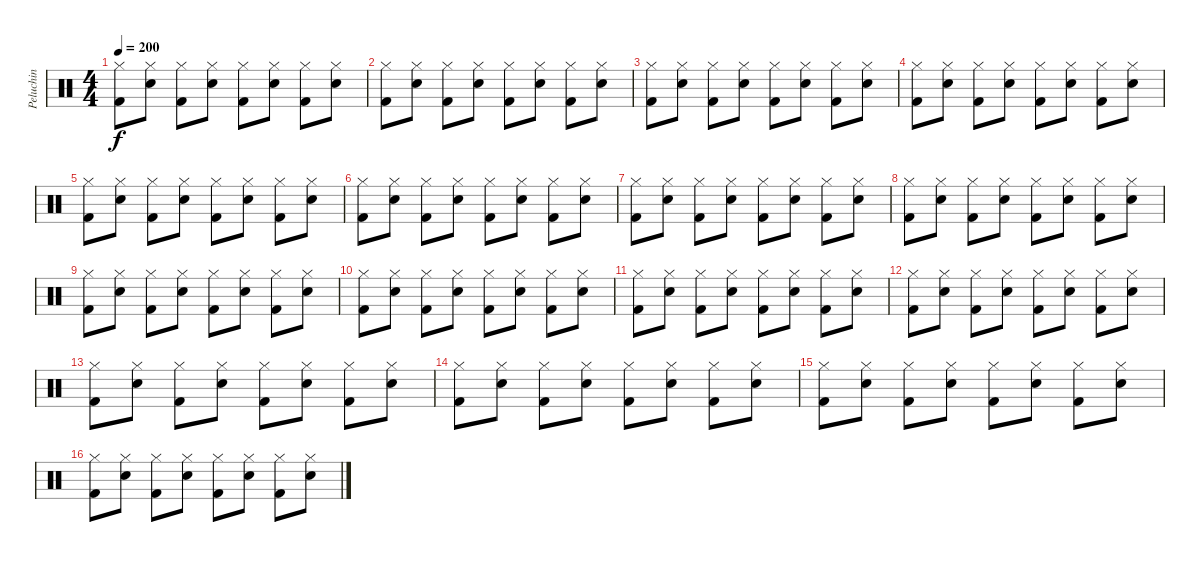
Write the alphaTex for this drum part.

\track ("Peluchin" "Peluchin") {instrument percussion}
\staff {score}
\articulation defaults
\ts (4 4)
\tempo 200
\clef neutral
\ks c
("Kick (hit) 2" "Hi-Hat (closed)").8{dy f} ("Electric Snare (hit)" "Hi-Hat (closed)").8 ("Kick (hit) 2" "Hi-Hat (closed)").8 ("Electric Snare (hit)" "Hi-Hat (closed)").8 ("Kick (hit) 2" "Hi-Hat (closed)").8 ("Electric Snare (hit)" "Hi-Hat (closed)").8 ("Kick (hit) 2" "Hi-Hat (closed)").8 ("Electric Snare (hit)" "Hi-Hat (closed)").8 |
("Kick (hit) 2" "Hi-Hat (closed)").8 ("Electric Snare (hit)" "Hi-Hat (closed)").8 ("Kick (hit) 2" "Hi-Hat (closed)").8 ("Electric Snare (hit)" "Hi-Hat (closed)").8 ("Kick (hit) 2" "Hi-Hat (closed)").8 ("Electric Snare (hit)" "Hi-Hat (closed)").8 ("Kick (hit) 2" "Hi-Hat (closed)").8 ("Electric Snare (hit)" "Hi-Hat (closed)").8 |
("Kick (hit) 2" "Hi-Hat (closed)").8 ("Electric Snare (hit)" "Hi-Hat (closed)").8 ("Kick (hit) 2" "Hi-Hat (closed)").8 ("Electric Snare (hit)" "Hi-Hat (closed)").8 ("Kick (hit) 2" "Hi-Hat (closed)").8 ("Electric Snare (hit)" "Hi-Hat (closed)").8 ("Kick (hit) 2" "Hi-Hat (closed)").8 ("Electric Snare (hit)" "Hi-Hat (closed)").8 |
("Kick (hit) 2" "Hi-Hat (closed)").8 ("Electric Snare (hit)" "Hi-Hat (closed)").8 ("Kick (hit) 2" "Hi-Hat (closed)").8 ("Electric Snare (hit)" "Hi-Hat (closed)").8 ("Kick (hit) 2" "Hi-Hat (closed)").8 ("Electric Snare (hit)" "Hi-Hat (closed)").8 ("Kick (hit) 2" "Hi-Hat (closed)").8 ("Electric Snare (hit)" "Hi-Hat (closed)").8 |
("Kick (hit) 2" "Hi-Hat (closed)").8 ("Electric Snare (hit)" "Hi-Hat (closed)").8 ("Kick (hit) 2" "Hi-Hat (closed)").8 ("Electric Snare (hit)" "Hi-Hat (closed)").8 ("Kick (hit) 2" "Hi-Hat (closed)").8 ("Electric Snare (hit)" "Hi-Hat (closed)").8 ("Kick (hit) 2" "Hi-Hat (closed)").8 ("Electric Snare (hit)" "Hi-Hat (closed)").8 |
("Kick (hit) 2" "Hi-Hat (closed)").8 ("Electric Snare (hit)" "Hi-Hat (closed)").8 ("Kick (hit) 2" "Hi-Hat (closed)").8 ("Electric Snare (hit)" "Hi-Hat (closed)").8 ("Kick (hit) 2" "Hi-Hat (closed)").8 ("Electric Snare (hit)" "Hi-Hat (closed)").8 ("Kick (hit) 2" "Hi-Hat (closed)").8 ("Electric Snare (hit)" "Hi-Hat (closed)").8 |
("Kick (hit) 2" "Hi-Hat (closed)").8 ("Electric Snare (hit)" "Hi-Hat (closed)").8 ("Kick (hit) 2" "Hi-Hat (closed)").8 ("Electric Snare (hit)" "Hi-Hat (closed)").8 ("Kick (hit) 2" "Hi-Hat (closed)").8 ("Electric Snare (hit)" "Hi-Hat (closed)").8 ("Kick (hit) 2" "Hi-Hat (closed)").8 ("Electric Snare (hit)" "Hi-Hat (closed)").8 |
("Kick (hit) 2" "Hi-Hat (closed)").8 ("Electric Snare (hit)" "Hi-Hat (closed)").8 ("Kick (hit) 2" "Hi-Hat (closed)").8 ("Electric Snare (hit)" "Hi-Hat (closed)").8 ("Kick (hit) 2" "Hi-Hat (closed)").8 ("Electric Snare (hit)" "Hi-Hat (closed)").8 ("Kick (hit) 2" "Hi-Hat (closed)").8 ("Electric Snare (hit)" "Hi-Hat (closed)").8 |
("Kick (hit) 2" "Hi-Hat (closed)").8 ("Electric Snare (hit)" "Hi-Hat (closed)").8 ("Kick (hit) 2" "Hi-Hat (closed)").8 ("Electric Snare (hit)" "Hi-Hat (closed)").8 ("Kick (hit) 2" "Hi-Hat (closed)").8 ("Electric Snare (hit)" "Hi-Hat (closed)").8 ("Kick (hit) 2" "Hi-Hat (closed)").8 ("Electric Snare (hit)" "Hi-Hat (closed)").8 |
("Kick (hit) 2" "Hi-Hat (closed)").8 ("Electric Snare (hit)" "Hi-Hat (closed)").8 ("Kick (hit) 2" "Hi-Hat (closed)").8 ("Electric Snare (hit)" "Hi-Hat (closed)").8 ("Kick (hit) 2" "Hi-Hat (closed)").8 ("Electric Snare (hit)" "Hi-Hat (closed)").8 ("Kick (hit) 2" "Hi-Hat (closed)").8 ("Electric Snare (hit)" "Hi-Hat (closed)").8 |
("Kick (hit) 2" "Hi-Hat (closed)").8 ("Electric Snare (hit)" "Hi-Hat (closed)").8 ("Kick (hit) 2" "Hi-Hat (closed)").8 ("Electric Snare (hit)" "Hi-Hat (closed)").8 ("Kick (hit) 2" "Hi-Hat (closed)").8 ("Electric Snare (hit)" "Hi-Hat (closed)").8 ("Kick (hit) 2" "Hi-Hat (closed)").8 ("Electric Snare (hit)" "Hi-Hat (closed)").8 |
("Kick (hit) 2" "Hi-Hat (closed)").8 ("Electric Snare (hit)" "Hi-Hat (closed)").8 ("Kick (hit) 2" "Hi-Hat (closed)").8 ("Electric Snare (hit)" "Hi-Hat (closed)").8 ("Kick (hit) 2" "Hi-Hat (closed)").8 ("Electric Snare (hit)" "Hi-Hat (closed)").8 ("Kick (hit) 2" "Hi-Hat (closed)").8 ("Electric Snare (hit)" "Hi-Hat (closed)").8 |
("Kick (hit) 2" "Hi-Hat (closed)").8 ("Electric Snare (hit)" "Hi-Hat (closed)").8 ("Kick (hit) 2" "Hi-Hat (closed)").8 ("Electric Snare (hit)" "Hi-Hat (closed)").8 ("Kick (hit) 2" "Hi-Hat (closed)").8 ("Electric Snare (hit)" "Hi-Hat (closed)").8 ("Kick (hit) 2" "Hi-Hat (closed)").8 ("Electric Snare (hit)" "Hi-Hat (closed)").8 |
("Kick (hit) 2" "Hi-Hat (closed)").8 ("Electric Snare (hit)" "Hi-Hat (closed)").8 ("Kick (hit) 2" "Hi-Hat (closed)").8 ("Electric Snare (hit)" "Hi-Hat (closed)").8 ("Kick (hit) 2" "Hi-Hat (closed)").8 ("Electric Snare (hit)" "Hi-Hat (closed)").8 ("Kick (hit) 2" "Hi-Hat (closed)").8 ("Electric Snare (hit)" "Hi-Hat (closed)").8 |
("Kick (hit) 2" "Hi-Hat (closed)").8 ("Electric Snare (hit)" "Hi-Hat (closed)").8 ("Kick (hit) 2" "Hi-Hat (closed)").8 ("Electric Snare (hit)" "Hi-Hat (closed)").8 ("Kick (hit) 2" "Hi-Hat (closed)").8 ("Electric Snare (hit)" "Hi-Hat (closed)").8 ("Kick (hit) 2" "Hi-Hat (closed)").8 ("Electric Snare (hit)" "Hi-Hat (closed)").8 |
("Kick (hit) 2" "Hi-Hat (closed)").8 ("Electric Snare (hit)" "Hi-Hat (closed)").8 ("Kick (hit) 2" "Hi-Hat (closed)").8 ("Electric Snare (hit)" "Hi-Hat (closed)").8 ("Kick (hit) 2" "Hi-Hat (closed)").8 ("Electric Snare (hit)" "Hi-Hat (closed)").8 ("Kick (hit) 2" "Hi-Hat (closed)").8 ("Electric Snare (hit)" "Hi-Hat (closed)").8
